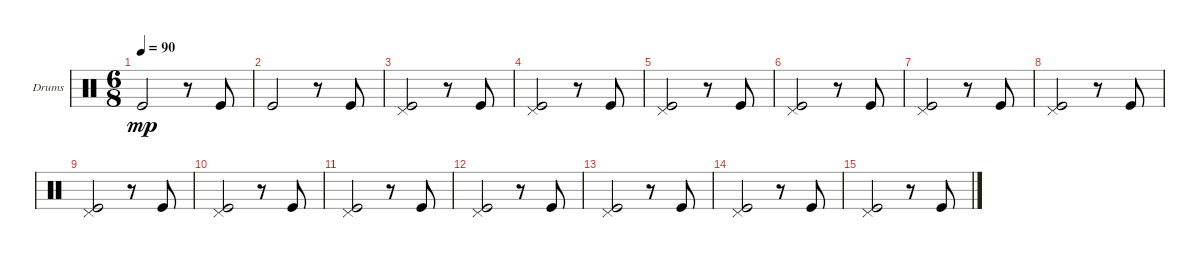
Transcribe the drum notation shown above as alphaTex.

\defaultSystemsLayout 4
\bracketExtendMode groupsimilarinstruments
\firstSystemTrackNameOrientation horizontal
\otherSystemsTrackNameOrientation horizontal
\track ("Drumkit" "Drums") {instrument percussion}
\staff {score}
\articulation defaults
\ts (6 8)
\tempo 90
\clef neutral
\scale
0.333333
\ks c "Kick (hit)".2{dy mp}
r.8 "Kick (hit)".8 |
\scale
0.333333 "Kick (hit)".2 r.8 "Kick (hit)".8 |
\scale
0.333333 ("Kick (hit)" "Pedal Hi-Hat (hit)").2 r.8 "Kick (hit)".8 |
\scale
0.333333 ("Kick (hit)" "Pedal Hi-Hat (hit)").2 r.8 "Kick (hit)".8 |
\scale
0.333333 ("Kick (hit)" "Pedal Hi-Hat (hit)").2 r.8 "Kick (hit)".8 |
\scale
0.333333 ("Kick (hit)" "Pedal Hi-Hat (hit)").2 r.8 "Kick (hit)".8 |
\scale
0.333333 ("Kick (hit)" "Pedal Hi-Hat (hit)").2 r.8 "Kick (hit)".8 |
\scale
0.333333 ("Kick (hit)" "Pedal Hi-Hat (hit)").2 r.8 "Kick (hit)".8 |
\scale
0.333333 ("Kick (hit)" "Pedal Hi-Hat (hit)").2 r.8 "Kick (hit)".8 |
\scale
0.333333 ("Kick (hit)" "Pedal Hi-Hat (hit)").2 r.8 "Kick (hit)".8 |
\scale
0.333333 ("Kick (hit)" "Pedal Hi-Hat (hit)").2 r.8 "Kick (hit)".8 |
\scale
0.333333 ("Kick (hit)" "Pedal Hi-Hat (hit)").2 r.8 "Kick (hit)".8 |
\scale
0.333333 ("Kick (hit)" "Pedal Hi-Hat (hit)").2 r.8 "Kick (hit)".8 |
\scale
0.333333 ("Kick (hit)" "Pedal Hi-Hat (hit)").2 r.8 "Kick (hit)".8 |
\scale
0.333333 ("Kick (hit)" "Pedal Hi-Hat (hit)").2 r.8 "Kick (hit)".8 |
\scale
0.333333
